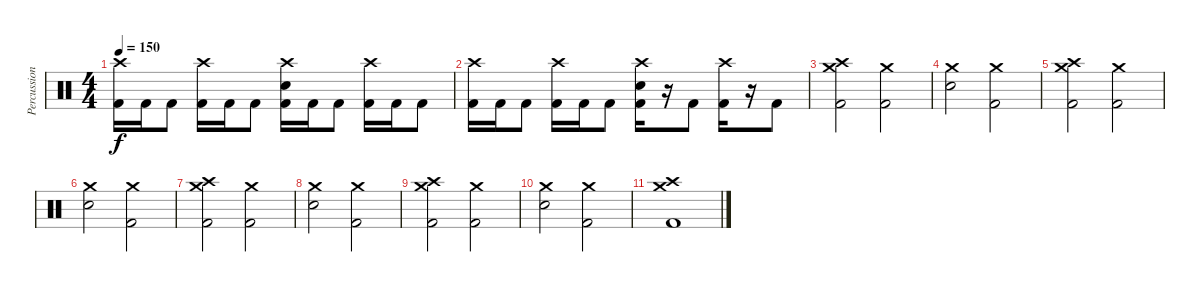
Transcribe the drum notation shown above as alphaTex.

\track ("Percussion" "Percussion") {instrument percussion}
\staff {score}
\articulation defaults
\ts (4 4)
\tempo 150
\clef neutral
\ks c
("Crash high (hit)" "Kick (hit) 2").16{dy f} "Kick (hit) 2".16 "Kick (hit) 2".8 ("Crash high (hit)" "Kick (hit) 2").16 "Kick (hit) 2".16 "Kick (hit) 2".8 ("Crash high (hit)" "Electric Snare (hit)" "Kick (hit) 2").16 "Kick (hit) 2".16 "Kick (hit) 2".8 ("Crash high (hit)" "Kick (hit) 2").16 "Kick (hit) 2".16 "Kick (hit) 2".8 |
("Crash high (hit)" "Kick (hit) 2").16 "Kick (hit) 2".16 "Kick (hit) 2".8 ("Crash high (hit)" "Kick (hit) 2").16 "Kick (hit) 2".16 "Kick (hit) 2".8 ("Crash high (hit)" "Electric Snare (hit)" "Kick (hit) 2").16 r.16 "Kick (hit) 2".8 ("Crash high (hit)" "Kick (hit) 2").16 r.16 "Kick (hit) 2".8 |
("Crash medium (hit)" "Crash high (hit)" "Kick (hit) 2").2 ("Crash medium (hit)" "Kick (hit) 2").2 |
("Crash medium (hit)" "Electric Snare (hit)").2 ("Crash medium (hit)" "Kick (hit) 2").2 |
("Crash medium (hit)" "Crash high (hit)" "Kick (hit) 2").2 ("Crash medium (hit)" "Kick (hit) 2").2 |
("Crash medium (hit)" "Electric Snare (hit)").2 ("Crash medium (hit)" "Kick (hit) 2").2 |
("Crash medium (hit)" "Crash high (hit)" "Kick (hit) 2").2 ("Crash medium (hit)" "Kick (hit) 2").2 |
("Crash medium (hit)" "Electric Snare (hit)").2 ("Crash medium (hit)" "Kick (hit) 2").2 |
("Crash medium (hit)" "Crash high (hit)" "Kick (hit) 2").2 ("Crash medium (hit)" "Kick (hit) 2").2 |
("Crash medium (hit)" "Electric Snare (hit)").2 ("Crash medium (hit)" "Kick (hit) 2").2 |
("Crash medium (hit)" "Crash high (hit)" "Kick (hit) 2").1
